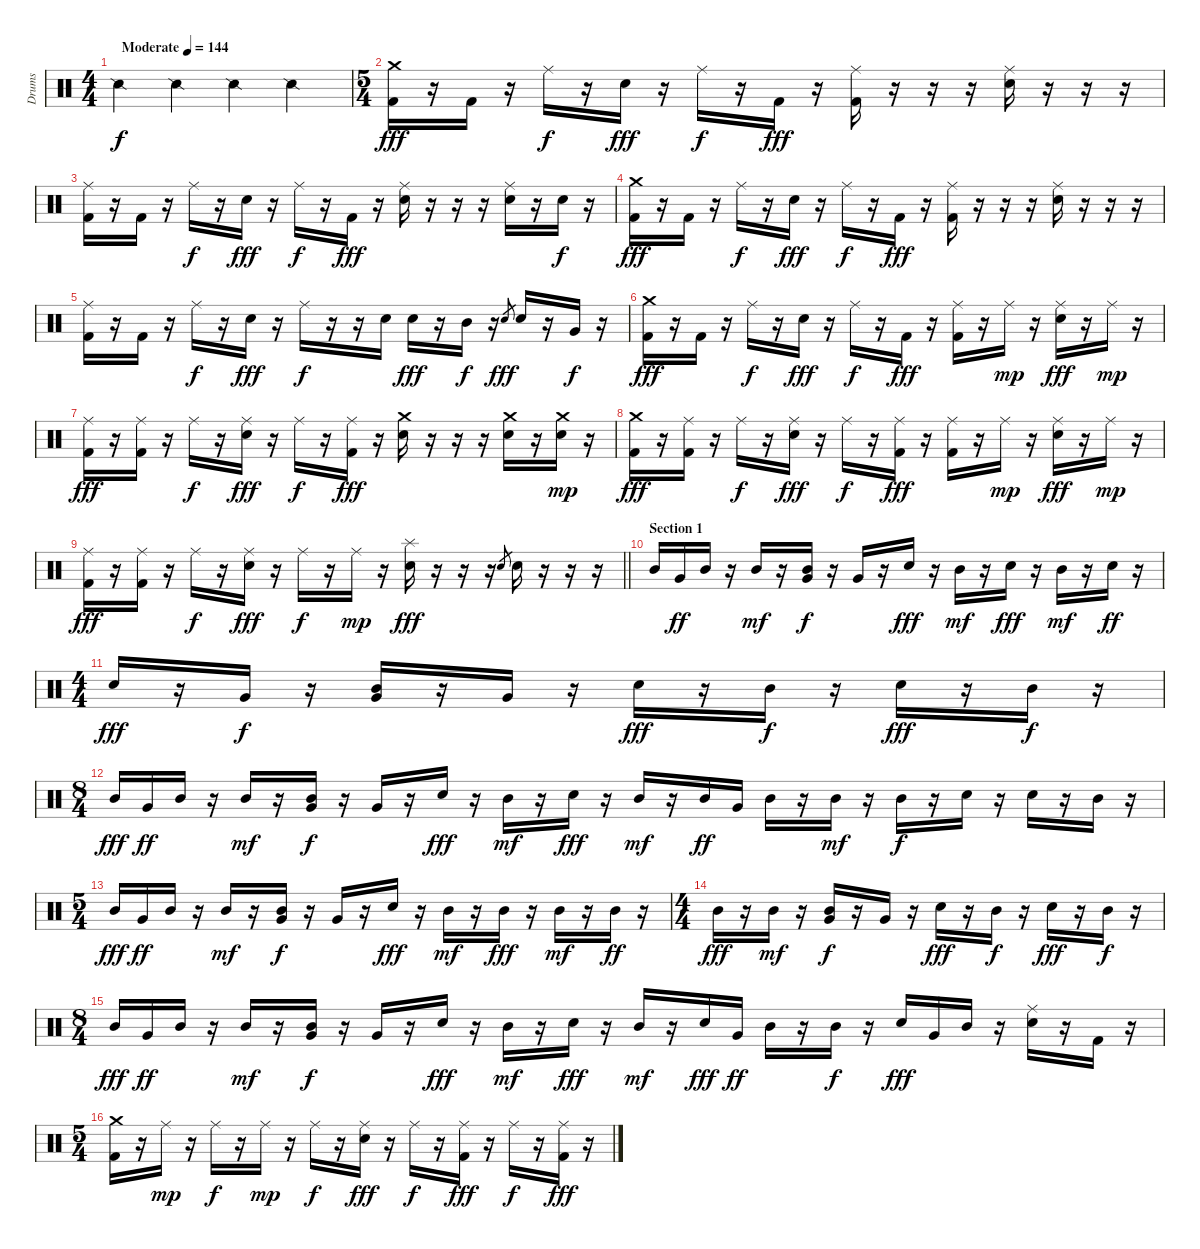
\track ("Drums" "Drums") {instrument percussion}
\staff {score}
\articulation defaults
\ts (4 4)
\tempo (144 "Moderate")
\clef neutral
\ks c "Snare (side stick) 2".4{dy f} "Snare (side stick) 2".4 "Snare (side stick) 2".4 "Snare (side stick) 2".4
|
\ts (5 4)
("Crash medium (hit)" "Kick (hit) 2").16{dy fff} r.16 "Kick (hit) 2".16 r.16 "Ride (middle)".16{dy f} r.16 "Electric Snare (hit)".16{dy fff} r.16 "Ride (middle)".16{dy f} r.16 "Kick (hit) 2".16{dy fff} r.16 ("Ride (middle)" "Kick (hit) 2").16 r.16 r.16 r.16 ("Ride (middle)" "Electric Snare (hit)").16 r.16 r.16 r.16 |
("Ride (middle)" "Kick (hit) 2").16 r.16 "Kick (hit) 2".16 r.16 "Ride (middle)".16{dy f} r.16 "Electric Snare (hit)".16{dy fff} r.16 "Ride (middle)".16{dy f} r.16 "Kick (hit) 2".16{dy fff} r.16 ("Ride (middle)" "Electric Snare (hit)").16 r.16 r.16 r.16 ("Ride (middle)" "Electric Snare (hit)").16 r.16 "Electric Snare (hit)".16{dy f} r.16 |
("Crash medium (hit)" "Kick (hit) 2").16{dy fff} r.16 "Kick (hit) 2".16 r.16 "Ride (middle)".16{dy f} r.16 "Electric Snare (hit)".16{dy fff} r.16 "Ride (middle)".16{dy f} r.16 "Kick (hit) 2".16{dy fff} r.16 ("Ride (middle)" "Kick (hit) 2").16 r.16 r.16 r.16 ("Ride (middle)" "Electric Snare (hit)").16 r.16 r.16 r.16 |
("Ride (middle)" "Kick (hit) 2").16 r.16 "Kick (hit) 2".16 r.16 "Ride (middle)".16{dy f} r.16 "Electric Snare (hit)".16{dy fff} r.16 "Ride (middle)".16{dy f} r.16 r.16 "Electric Snare (hit)".16 "Electric Snare (hit)".16{dy fff} r.16 "Mid Tom (hit)".16{dy f} r.16 "Electric Snare (hit)".8{gr dy fff} "Electric Snare (hit)".16 r.16 "Very Low Tom (hit)".16{dy f} r.16 |
("Crash medium (hit)" "Kick (hit) 2").16{dy fff} r.16 "Kick (hit) 2".16 r.16 "Ride (middle)".16{dy f} r.16 "Electric Snare (hit)".16{dy fff} r.16 "Ride (middle)".16{dy f} r.16 "Kick (hit) 2".16{dy fff} r.16 ("Ride (middle)" "Kick (hit) 2").16 r.16 "Ride (middle)".16{dy mp} r.16 ("Ride (middle)" "Electric Snare (hit)").16{dy fff} r.16 "Ride (middle)".16{dy mp} r.16 |
("Ride (middle)" "Kick (hit) 2").16{dy fff} r.16 ("Ride (middle)" "Kick (hit) 2").16 r.16 "Ride (middle)".16{dy f} r.16 ("Ride (middle)" "Electric Snare (hit)").16{dy fff} r.16 "Ride (middle)".16{dy f} r.16 ("Ride (middle)" "Kick (hit) 2").16{dy fff} r.16 ("Crash medium (hit)" "Electric Snare (hit)").16 r.16 r.16 r.16 ("Crash medium (hit)" "Electric Snare (hit)").16 r.16 ("Crash medium (hit)" "Electric Snare (hit)").16{dy mp} r.16 |
("Crash medium (hit)" "Kick (hit) 2").16{dy fff} r.16 ("Ride (middle)" "Kick (hit) 2").16 r.16 "Ride (middle)".16{dy f} r.16 ("Ride (middle)" "Electric Snare (hit)").16{dy fff} r.16 "Ride (middle)".16{dy f} r.16 ("Ride (middle)" "Kick (hit) 2").16{dy fff} r.16 ("Ride (middle)" "Kick (hit) 2").16 r.16 "Ride (middle)".16{dy mp} r.16 ("Ride (middle)" "Electric Snare (hit)").16{dy fff} r.16 "Ride (middle)".16{dy mp} r.16 |
\barLineRight lightlight
("Ride (middle)" "Kick (hit) 2").16{dy fff} r.16 ("Ride (middle)" "Kick (hit) 2").16 r.16 "Ride (middle)".16{dy f} r.16 ("Ride (middle)" "Electric Snare (hit)").16{dy fff} r.16 "Ride (middle)".16{dy f} r.16 "Ride (middle)".16{dy mp} r.16 ("Splash (hit)" "Electric Snare (hit)").16{dy fff} r.16 r.16 r.16 "Electric Snare (hit)".8{gr} "Electric Snare (hit)".16 r.16 r.16 r.16 |
\section ("" "Section 1")
"Mid Tom (hit)".16 "Very Low Tom (hit)".16{dy ff} "Mid Tom (hit)".16 r.16 "Mid Tom (hit)".16{dy mf} r.16 ("Mid Tom (hit)" "Very Low Tom (hit)").16{dy f} r.16 "Very Low Tom (hit)".16 r.16 "Electric Snare (hit)".16{dy fff} r.16 "Mid Tom (hit)".16{dy mf} r.16 "Electric Snare (hit)".16{dy fff} r.16 "Mid Tom (hit)".16{dy mf} r.16 "Electric Snare (hit)".16{dy ff} r.16 |
\ts (4 4)
"Electric Snare (hit)".16{dy fff} r.16 "Very Low Tom (hit)".16{dy f} r.16 ("Mid Tom (hit)" "Very Low Tom (hit)").16 r.16 "Very Low Tom (hit)".16 r.16 "Electric Snare (hit)".16{dy fff} r.16 "Mid Tom (hit)".16{dy f} r.16 "Electric Snare (hit)".16{dy fff} r.16 "Mid Tom (hit)".16{dy f} r.16 |
\ts (8 4)
"Mid Tom (hit)".16{dy fff} "Very Low Tom (hit)".16{dy ff} "Mid Tom (hit)".16 r.16 "Mid Tom (hit)".16{dy mf} r.16 ("Mid Tom (hit)" "Very Low Tom (hit)").16{dy f} r.16 "Very Low Tom (hit)".16 r.16 "Electric Snare (hit)".16{dy fff} r.16 "Mid Tom (hit)".16{dy mf} r.16 "Electric Snare (hit)".16{dy fff} r.16 "Mid Tom (hit)".16{dy mf} r.16 "Mid Tom (hit)".16{dy ff} "Very Low Tom (hit)".16 "Mid Tom (hit)".16 r.16 "Mid Tom (hit)".16{dy mf} r.16 "Mid Tom (hit)".16{dy f} r.16 "Electric Snare (hit)".16 r.16 "Electric Snare (hit)".16 r.16 "Mid Tom (hit)".16 r.16 |
\ts (5 4)
"Mid Tom (hit)".16{dy fff} "Very Low Tom (hit)".16{dy ff} "Mid Tom (hit)".16 r.16 "Mid Tom (hit)".16{dy mf} r.16 ("Mid Tom (hit)" "Very Low Tom (hit)").16{dy f} r.16 "Very Low Tom (hit)".16 r.16 "Electric Snare (hit)".16{dy fff} r.16 "Mid Tom (hit)".16{dy mf} r.16 "Mid Tom (hit)".16{dy fff} r.16 "Mid Tom (hit)".16{dy mf} r.16 "Mid Tom (hit)".16{dy ff} r.16 |
\ts (4 4)
"Mid Tom (hit)".16{dy fff} r.16 "Mid Tom (hit)".16{dy mf} r.16 ("Mid Tom (hit)" "Very Low Tom (hit)").16{dy f} r.16 "Very Low Tom (hit)".16 r.16 "Electric Snare (hit)".16{dy fff} r.16 "Mid Tom (hit)".16{dy f} r.16 "Electric Snare (hit)".16{dy fff} r.16 "Mid Tom (hit)".16{dy f} r.16 |
\ts (8 4)
"Mid Tom (hit)".16{dy fff} "Very Low Tom (hit)".16{dy ff} "Mid Tom (hit)".16 r.16 "Mid Tom (hit)".16{dy mf} r.16 ("Mid Tom (hit)" "Very Low Tom (hit)").16{dy f} r.16 "Very Low Tom (hit)".16 r.16 "Electric Snare (hit)".16{dy fff} r.16 "Mid Tom (hit)".16{dy mf} r.16 "Electric Snare (hit)".16{dy fff} r.16 "Mid Tom (hit)".16{dy mf} r.16 "Electric Snare (hit)".16{dy fff} "Very Low Tom (hit)".16{dy ff} "Mid Tom (hit)".16 r.16 "Mid Tom (hit)".16{dy f} r.16 "Electric Snare (hit)".16{dy fff} "Very Low Tom (hit)".16 "Mid Tom (hit)".16 r.16 ("Ride (middle)" "Electric Snare (hit)").16 r.16 "Kick (hit) 2".16 r.16 |
\ts (5 4)
("Crash medium (hit)" "Kick (hit) 2").16 r.16 "Ride (middle)".16{dy mp} r.16 "Ride (middle)".16{dy f} r.16 "Ride (middle)".16{dy mp} r.16 "Ride (middle)".16{dy f} r.16 ("Ride (middle)" "Electric Snare (hit)").16{dy fff} r.16 "Ride (middle)".16{dy f} r.16 ("Ride (middle)" "Kick (hit) 2").16{dy fff} r.16 "Ride (middle)".16{dy f} r.16 ("Ride (middle)" "Kick (hit) 2").16{dy fff} r.16
